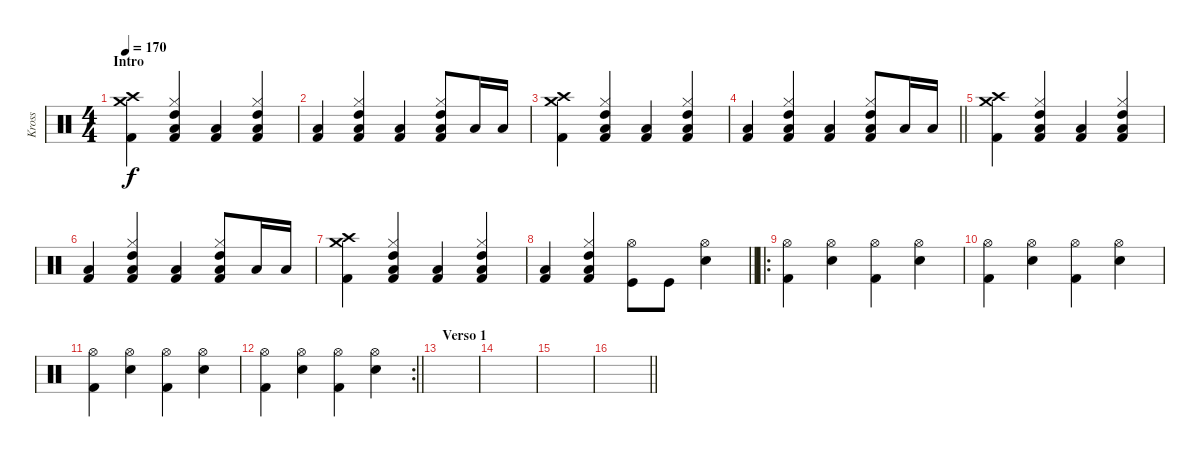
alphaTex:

\track ("Kross" "Kross") {instrument percussion}
\staff {score}
\articulation defaults
\ts (4 4)
\section ("" "Intro")
\tempo 170
\clef neutral
\ks c
("Crash high (hit)" "Crash medium (hit)" "Kick (hit) 2").4{dy f} ("Hi-Hat (closed)" "High Tom (hit)" "Low Floor Tom (hit)" "Kick (hit) 2").4 ("Low Floor Tom (hit)" "Kick (hit) 2").4 ("Hi-Hat (closed)" "High Tom (hit)" "Low Floor Tom (hit)" "Kick (hit) 2").4 |
("Low Floor Tom (hit)" "Kick (hit) 2").4 ("Hi-Hat (closed)" "High Tom (hit)" "Low Floor Tom (hit)" "Kick (hit) 2").4 ("Low Floor Tom (hit)" "Kick (hit) 2").4 ("Hi-Hat (closed)" "High Tom (hit)" "Low Floor Tom (hit)" "Kick (hit) 2").8 "Low Floor Tom (hit)".16 "Low Floor Tom (hit)".16 |
("Crash high (hit)" "Crash medium (hit)" "Kick (hit) 2").4 ("Hi-Hat (closed)" "High Tom (hit)" "Low Floor Tom (hit)" "Kick (hit) 2").4 ("Low Floor Tom (hit)" "Kick (hit) 2").4 ("Hi-Hat (closed)" "High Tom (hit)" "Low Floor Tom (hit)" "Kick (hit) 2").4 |
\barLineRight lightlight
("Low Floor Tom (hit)" "Kick (hit) 2").4 ("Hi-Hat (closed)" "High Tom (hit)" "Low Floor Tom (hit)" "Kick (hit) 2").4 ("Low Floor Tom (hit)" "Kick (hit) 2").4 ("Hi-Hat (closed)" "High Tom (hit)" "Low Floor Tom (hit)" "Kick (hit) 2").8 "Low Floor Tom (hit)".16 "Low Floor Tom (hit)".16 |
("Crash high (hit)" "Crash medium (hit)" "Kick (hit) 2").4 ("Hi-Hat (closed)" "High Tom (hit)" "Low Floor Tom (hit)" "Kick (hit) 2").4 ("Low Floor Tom (hit)" "Kick (hit) 2").4 ("Hi-Hat (closed)" "High Tom (hit)" "Low Floor Tom (hit)" "Kick (hit) 2").4 |
("Low Floor Tom (hit)" "Kick (hit) 2").4 ("Hi-Hat (closed)" "High Tom (hit)" "Low Floor Tom (hit)" "Kick (hit) 2").4 ("Low Floor Tom (hit)" "Kick (hit) 2").4 ("Hi-Hat (closed)" "High Tom (hit)" "Low Floor Tom (hit)" "Kick (hit) 2").8 "Low Floor Tom (hit)".16 "Low Floor Tom (hit)".16 |
("Crash high (hit)" "Crash medium (hit)" "Kick (hit) 2").4 ("Hi-Hat (closed)" "High Tom (hit)" "Low Floor Tom (hit)" "Kick (hit) 2").4 ("Low Floor Tom (hit)" "Kick (hit) 2").4 ("Hi-Hat (closed)" "High Tom (hit)" "Low Floor Tom (hit)" "Kick (hit) 2").4 |
\barLineRight lightlight
("Low Floor Tom (hit)" "Kick (hit) 2").4 ("Hi-Hat (closed)" "High Tom (hit)" "Low Floor Tom (hit)" "Kick (hit) 2").4 ("Hi-Hat (open)" "Kick (hit)").8 "Kick (hit)".8 ("Hi-Hat (open)" "Snare (hit) 2").4 |
\ro
("Hi-Hat (open)" "Kick (hit) 2").4 ("Hi-Hat (open)" "Electric Snare (hit)").4 ("Hi-Hat (open)" "Kick (hit) 2").4 ("Hi-Hat (open)" "Electric Snare (hit)").4 |
("Hi-Hat (open)" "Kick (hit) 2").4 ("Hi-Hat (open)" "Electric Snare (hit)").4 ("Hi-Hat (open)" "Kick (hit) 2").4 ("Hi-Hat (open)" "Electric Snare (hit)").4 |
("Hi-Hat (open)" "Kick (hit) 2").4 ("Hi-Hat (open)" "Electric Snare (hit)").4 ("Hi-Hat (open)" "Kick (hit) 2").4 ("Hi-Hat (open)" "Electric Snare (hit)").4 |
\rc 2
\barLineRight lightlight
("Hi-Hat (open)" "Kick (hit) 2").4 ("Hi-Hat (open)" "Electric Snare (hit)").4 ("Hi-Hat (open)" "Kick (hit) 2").4 ("Hi-Hat (open)" "Electric Snare (hit)").4 |
\section ("" "Verso 1")
|
|
|
\barLineRight lightlight
